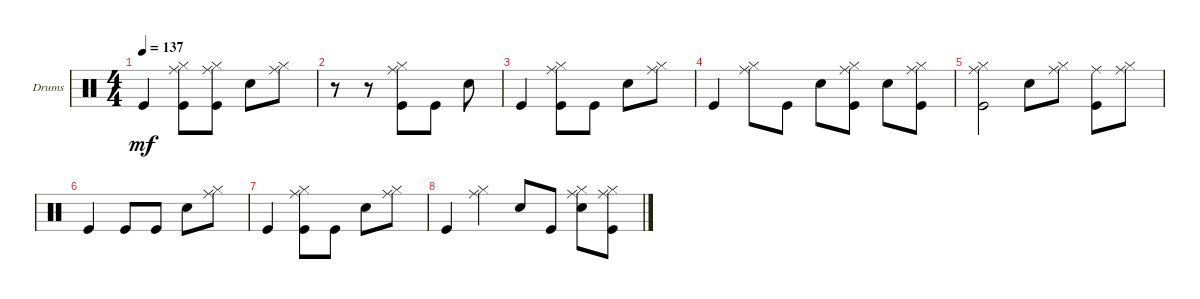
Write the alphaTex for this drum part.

\defaultSystemsLayout 4
\bracketExtendMode groupsimilarinstruments
\firstSystemTrackNameOrientation horizontal
\otherSystemsTrackNameOrientation horizontal
\track ("Drumkit" "Drums") {instrument percussion}
\staff {score}
\articulation defaults
\ts (4 4)
\tempo 137
\clef neutral
\ks c "Kick (hit)".4{dy mf}
("Kick (hit)" "Ride (middle)" "Hi-Hat (closed)").8 ("Kick (hit)" "Ride (middle)" "Hi-Hat (closed)").8 "Snare (hit) 2".8 ("Hi-Hat (closed)" "Ride (middle)").8 |
r.8 r.8 ("Ride (middle)" "Hi-Hat (closed)" "Kick (hit)").8 "Kick (hit)".8 "Snare (hit) 2".8 |
"Kick (hit)".4 ("Kick (hit)" "Ride (middle)" "Hi-Hat (closed)").8 "Kick (hit)".8 "Snare (hit) 2".8 ("Ride (middle)" "Hi-Hat (closed)").8 |
"Kick (hit)".4 ("Ride (middle)" "Hi-Hat (closed)").8 "Kick (hit)".8 "Snare (hit) 2".8 ("Ride (middle)" "Hi-Hat (closed)" "Kick (hit)").8 "Snare (hit) 2".8 ("Ride (middle)" "Hi-Hat (closed)" "Kick (hit)").8 |
("Kick (hit)" "Ride (middle)" "Hi-Hat (closed)").2 "Snare (hit) 2".8 ("Hi-Hat (closed)" "Ride (middle)").8 ("Kick (hit)" "Ride (middle)").8 ("Hi-Hat (closed)" "Ride (middle)").8 |
"Kick (hit)".4 "Kick (hit)".8 "Kick (hit)".8 "Snare (hit) 2".8 ("Hi-Hat (closed)" "Ride (middle)").8 |
"Kick (hit)".4 ("Kick (hit)" "Ride (middle)" "Hi-Hat (closed)").8 "Kick (hit)".8 "Snare (hit) 2".8 ("Hi-Hat (closed)" "Ride (middle)").8 |
"Kick (hit)".4 ("Ride (middle)" "Hi-Hat (closed)").4 "Snare (hit) 2".8 "Kick (hit)".8 ("Hi-Hat (closed)" "Ride (middle)" "Snare (hit) 2").8 ("Ride (middle)" "Hi-Hat (closed)" "Kick (hit)").8
